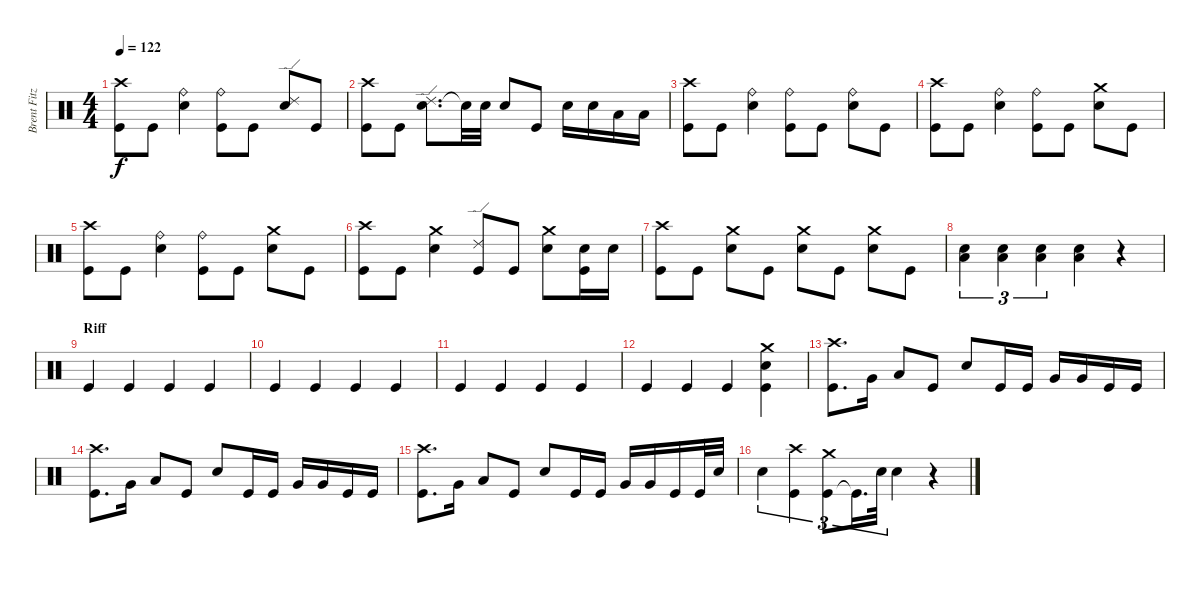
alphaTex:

\track ("Brent Fitz" "Brent Fitz") {instrument percussion}
\staff {score}
\articulation defaults
\ts (4 4)
\tempo 122
\clef neutral
\ks c
("Kick (hit)" "Crash high (hit)").8{dy f} "Kick (hit)".8 ("Snare (hit) 2" "Ride (bell)").4 ("Kick (hit)" "Ride (bell)").8 "Kick (hit)".8 ("Snare (hit) 2" "Ride (edge) 2").8 "Kick (hit)".8 |
("Kick (hit)" "Crash high (hit)").8 "Kick (hit)".8 ("Snare (hit) 2" "Ride (edge) 2").8{d} "Snare (hit) 2"{t}.32 "Snare (hit) 2".32 "Snare (hit) 2".8 "Kick (hit)".8 "Snare (hit) 2".16 "Snare (hit) 2".16 "Low Floor Tom (hit)".16 "Low Floor Tom (hit)".16 |
("Kick (hit)" "Crash high (hit)").8 "Kick (hit)".8 ("Snare (hit) 2" "Ride (bell)").4 ("Kick (hit)" "Ride (bell)").8 "Kick (hit)".8 ("Snare (hit) 2" "Ride (bell)").8 "Kick (hit)".8 |
("Kick (hit)" "Crash high (hit)").8 "Kick (hit)".8 ("Snare (hit) 2" "Ride (bell)").4 ("Kick (hit)" "Ride (bell)").8 "Kick (hit)".8 ("Snare (hit) 2" "Crash medium (hit)").8 "Kick (hit)".8 |
("Kick (hit)" "Crash high (hit)").8 "Kick (hit)".8 ("Snare (hit) 2" "Ride (bell)").4 ("Kick (hit)" "Ride (bell)").8 "Kick (hit)".8 ("Snare (hit) 2" "Crash medium (hit)").8 "Kick (hit)".8 |
("Kick (hit)" "Crash high (hit)").8 "Kick (hit)".8 ("Snare (hit) 2" "Crash medium (hit)").4 ("Kick (hit)" "Ride (edge) 2").8 "Kick (hit)".8 ("Snare (hit) 2" "Crash medium (hit)").8 ("Kick (hit)" "Snare (hit) 2").16 "Snare (hit) 2".16 |
("Kick (hit)" "Crash high (hit)").8 "Kick (hit)".8 ("Snare (hit) 2" "Crash medium (hit)").8 "Kick (hit)".8 ("Snare (hit) 2" "Crash medium (hit)").8 "Kick (hit)".8 ("Snare (hit) 2" "Crash medium (hit)").8 "Kick (hit)".8 |
("Snare (hit) 2" "Low Floor Tom (hit)").4{tu (3 2)} ("Snare (hit) 2" "Low Floor Tom (hit)").4{tu (3 2)} ("Snare (hit) 2" "Low Floor Tom (hit)").4{tu (3 2)} ("Snare (hit) 2" "Low Floor Tom (hit)").4 r.4 |
\section ("" "Riff")
"Kick (hit)".4 "Kick (hit)".4 "Kick (hit)".4 "Kick (hit)".4 |
"Kick (hit)".4 "Kick (hit)".4 "Kick (hit)".4 "Kick (hit)".4 |
"Kick (hit)".4 "Kick (hit)".4 "Kick (hit)".4 "Kick (hit)".4 |
"Kick (hit)".4 "Kick (hit)".4 "Kick (hit)".4 ("Kick (hit)" "Snare (hit) 2" "Crash medium (hit)").4 |
("Kick (hit)" "Crash high (hit)").8{d} "Very Low Tom (hit)".16 "Low Floor Tom (hit)".8 "Kick (hit)".8 "Snare (hit) 2".8 "Kick (hit)".16 "Kick (hit)".16 "Very Low Tom (hit)".16 "Very Low Tom (hit)".16 "Kick (hit)".16 "Kick (hit)".16 |
("Kick (hit)" "Crash high (hit)").8{d} "Very Low Tom (hit)".16 "Low Floor Tom (hit)".8 "Kick (hit)".8 "Snare (hit) 2".8 "Kick (hit)".16 "Kick (hit)".16 "Very Low Tom (hit)".16 "Very Low Tom (hit)".16 "Kick (hit)".16 "Kick (hit)".16 |
("Kick (hit)" "Crash high (hit)").8{d} "Very Low Tom (hit)".16 "Low Floor Tom (hit)".8 "Kick (hit)".8 "Snare (hit) 2".8 "Kick (hit)".16 "Kick (hit)".16 "Very Low Tom (hit)".16 "Very Low Tom (hit)".16 "Kick (hit)".16 "Kick (hit)".32 "Snare (hit) 2".32 |
"Snare (hit) 2".4{tu (3 2)} ("Kick (hit)" "Crash high (hit)").4{tu (3 2)} ("Kick (hit)" "Crash medium (hit)").8{tu (3 2)} "Kick (hit)"{t}.16{d tu (3 2)} "Snare (hit) 2".32{tu (3 2)} "Snare (hit) 2".4 r.4
